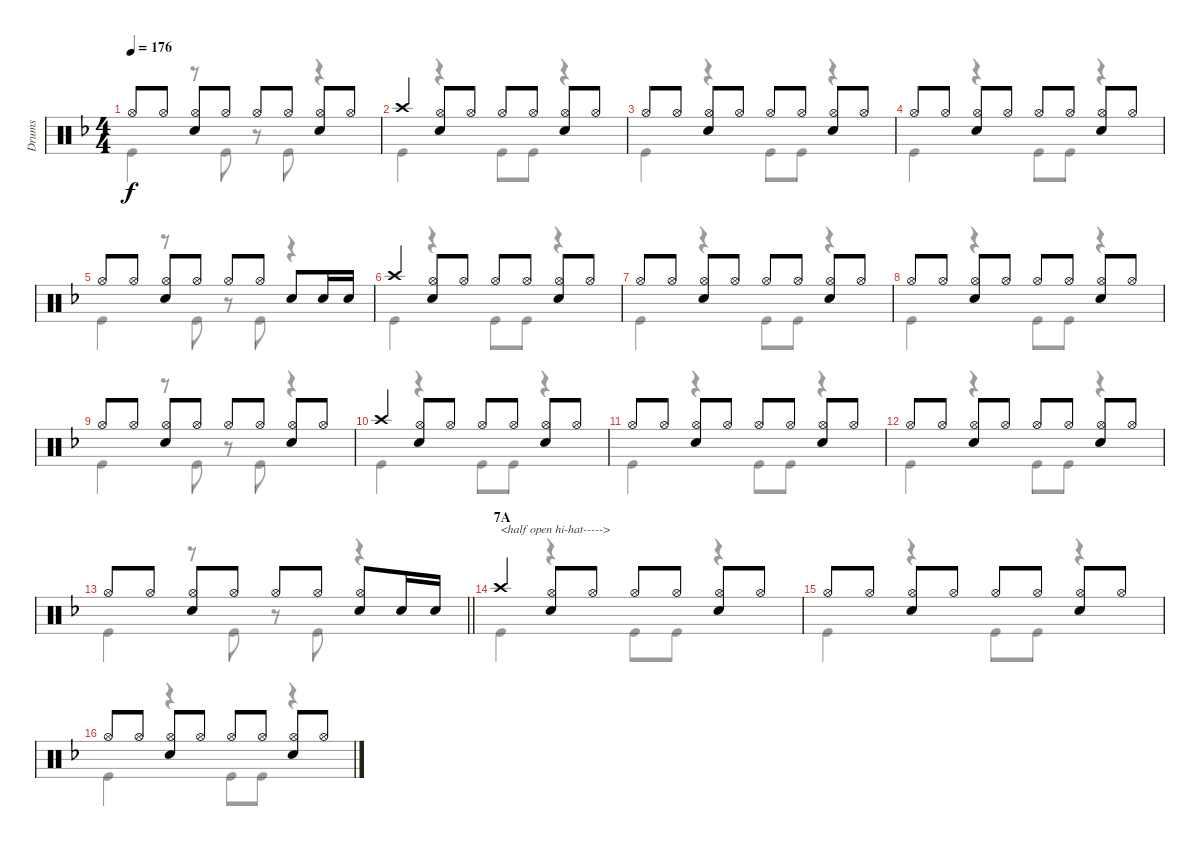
\track ("Drums" "Drums") {instrument percussion}
\staff {score}
\articulation defaults
\voice
\ts (4 4)
\tempo 176
\clef neutral
\ks f "Hi-Hat (open)".8{dy f} "Hi-Hat (open)".8
("Hi-Hat (open)" "Snare (hit) 2").8 "Hi-Hat (open)".8 "Hi-Hat (open)".8 "Hi-Hat (open)".8 ("Hi-Hat (open)" "Snare (hit) 2").8 "Hi-Hat (open)".8 |
"Crash high (hit)".4 ("Hi-Hat (open)" "Snare (hit) 2").8 "Hi-Hat (open)".8 "Hi-Hat (open)".8 "Hi-Hat (open)".8 ("Hi-Hat (open)" "Snare (hit) 2").8 "Hi-Hat (open)".8 |
"Hi-Hat (open)".8 "Hi-Hat (open)".8 ("Hi-Hat (open)" "Snare (hit) 2").8 "Hi-Hat (open)".8 "Hi-Hat (open)".8 "Hi-Hat (open)".8 ("Hi-Hat (open)" "Snare (hit) 2").8 "Hi-Hat (open)".8 |
"Hi-Hat (open)".8 "Hi-Hat (open)".8 ("Hi-Hat (open)" "Snare (hit) 2").8 "Hi-Hat (open)".8 "Hi-Hat (open)".8 "Hi-Hat (open)".8 ("Hi-Hat (open)" "Snare (hit) 2").8 "Hi-Hat (open)".8 |
"Hi-Hat (open)".8 "Hi-Hat (open)".8 ("Hi-Hat (open)" "Snare (hit) 2").8 "Hi-Hat (open)".8 "Hi-Hat (open)".8 "Hi-Hat (open)".8 "Snare (hit) 2".8 "Snare (hit) 2".16 "Snare (hit) 2".16 |
"Crash high (hit)".4 ("Hi-Hat (open)" "Snare (hit) 2").8 "Hi-Hat (open)".8 "Hi-Hat (open)".8 "Hi-Hat (open)".8 ("Hi-Hat (open)" "Snare (hit) 2").8 "Hi-Hat (open)".8 |
"Hi-Hat (open)".8 "Hi-Hat (open)".8 ("Hi-Hat (open)" "Snare (hit) 2").8 "Hi-Hat (open)".8 "Hi-Hat (open)".8 "Hi-Hat (open)".8 ("Hi-Hat (open)" "Snare (hit) 2").8 "Hi-Hat (open)".8 |
"Hi-Hat (open)".8 "Hi-Hat (open)".8 ("Hi-Hat (open)" "Snare (hit) 2").8 "Hi-Hat (open)".8 "Hi-Hat (open)".8 "Hi-Hat (open)".8 ("Hi-Hat (open)" "Snare (hit) 2").8 "Hi-Hat (open)".8 |
"Hi-Hat (open)".8 "Hi-Hat (open)".8 ("Hi-Hat (open)" "Snare (hit) 2").8 "Hi-Hat (open)".8 "Hi-Hat (open)".8 "Hi-Hat (open)".8 ("Hi-Hat (open)" "Snare (hit) 2").8 "Hi-Hat (open)".8 |
"Crash high (hit)".4 ("Hi-Hat (open)" "Snare (hit) 2").8 "Hi-Hat (open)".8 "Hi-Hat (open)".8 "Hi-Hat (open)".8 ("Hi-Hat (open)" "Snare (hit) 2").8 "Hi-Hat (open)".8 |
"Hi-Hat (open)".8 "Hi-Hat (open)".8 ("Hi-Hat (open)" "Snare (hit) 2").8 "Hi-Hat (open)".8 "Hi-Hat (open)".8 "Hi-Hat (open)".8 ("Hi-Hat (open)" "Snare (hit) 2").8 "Hi-Hat (open)".8 |
"Hi-Hat (open)".8 "Hi-Hat (open)".8 ("Hi-Hat (open)" "Snare (hit) 2").8 "Hi-Hat (open)".8 "Hi-Hat (open)".8 "Hi-Hat (open)".8 ("Hi-Hat (open)" "Snare (hit) 2").8 "Hi-Hat (open)".8 |
\barLineRight lightlight "Hi-Hat (open)".8 "Hi-Hat (open)".8
("Hi-Hat (open)" "Snare (hit) 2").8 "Hi-Hat (open)".8 "Hi-Hat (open)".8 "Hi-Hat (open)".8 ("Hi-Hat (open)" "Snare (hit) 2").8 "Snare (hit) 2".16 "Snare (hit) 2".16 |
\section ("" "7A")
"Crash high (hit)".4{txt "<half open hi-hat----->"} ("Hi-Hat (open)" "Snare (hit) 2").8 "Hi-Hat (open)".8 "Hi-Hat (open)".8 "Hi-Hat (open)".8 ("Hi-Hat (open)" "Snare (hit) 2").8 "Hi-Hat (open)".8 |
"Hi-Hat (open)".8 "Hi-Hat (open)".8 ("Hi-Hat (open)" "Snare (hit) 2").8 "Hi-Hat (open)".8 "Hi-Hat (open)".8 "Hi-Hat (open)".8 ("Hi-Hat (open)" "Snare (hit) 2").8 "Hi-Hat (open)".8 |
"Hi-Hat (open)".8 "Hi-Hat (open)".8 ("Hi-Hat (open)" "Snare (hit) 2").8 "Hi-Hat (open)".8 "Hi-Hat (open)".8 "Hi-Hat (open)".8 ("Hi-Hat (open)" "Snare (hit) 2").8 "Hi-Hat (open)".8
\voice
\clef neutral
\ottava regular
\simile none
\ks f "Kick (hit)".4{dy f}
r.8 "Kick (hit)".8 r.8 "Kick (hit)".8 r.4 |
"Kick (hit)".4 r.4 "Kick (hit)".8 "Kick (hit)".8 r.4 |
"Kick (hit)".4 r.4 "Kick (hit)".8 "Kick (hit)".8 r.4 |
"Kick (hit)".4 r.4 "Kick (hit)".8 "Kick (hit)".8 r.4 |
"Kick (hit)".4 r.8 "Kick (hit)".8 r.8 "Kick (hit)".8 r.4 |
"Kick (hit)".4 r.4 "Kick (hit)".8 "Kick (hit)".8 r.4 |
"Kick (hit)".4 r.4 "Kick (hit)".8 "Kick (hit)".8 r.4 |
"Kick (hit)".4 r.4 "Kick (hit)".8 "Kick (hit)".8 r.4 |
"Kick (hit)".4 r.8 "Kick (hit)".8 r.8 "Kick (hit)".8 r.4 |
"Kick (hit)".4 r.4 "Kick (hit)".8 "Kick (hit)".8 r.4 |
"Kick (hit)".4 r.4 "Kick (hit)".8 "Kick (hit)".8 r.4 |
"Kick (hit)".4 r.4 "Kick (hit)".8 "Kick (hit)".8 r.4 |
\barLineRight lightlight "Kick (hit)".4
r.8 "Kick (hit)".8 r.8 "Kick (hit)".8 r.4 |
"Kick (hit)".4 r.4 "Kick (hit)".8 "Kick (hit)".8 r.4 |
"Kick (hit)".4 r.4 "Kick (hit)".8 "Kick (hit)".8 r.4 |
"Kick (hit)".4 r.4 "Kick (hit)".8 "Kick (hit)".8 r.4
